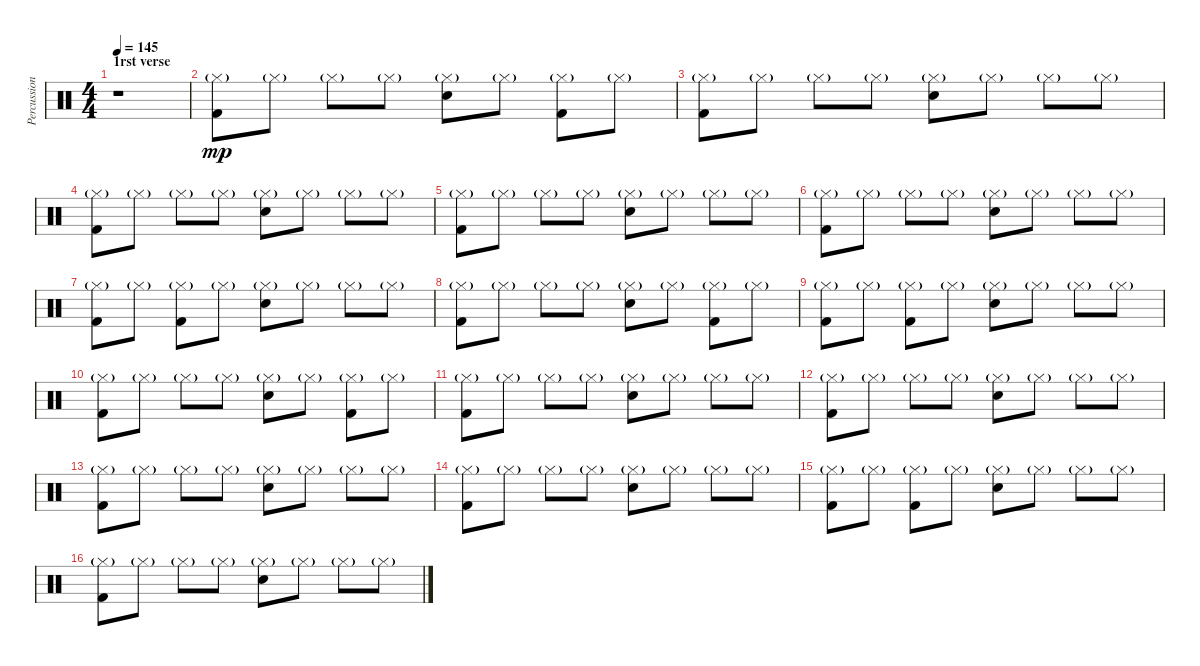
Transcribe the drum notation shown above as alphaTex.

\track ("Percussion (Bengerg)" "Percussion") {instrument percussion}
\staff {score}
\articulation defaults
\ts (4 4)
\section ("" "1rst verse")
\tempo 145
\clef neutral
\ks c
r.1{dy mp} |
("Hi-Hat (closed)"{g} "Kick (hit) 2").8 "Hi-Hat (closed)"{g}.8 "Hi-Hat (closed)"{g}.8 "Hi-Hat (closed)"{g}.8 ("Hi-Hat (closed)"{g} "Hand Clap (hit)").8 "Hi-Hat (closed)"{g}.8 ("Hi-Hat (closed)"{g} "Kick (hit) 2").8 "Hi-Hat (closed)"{g}.8 |
("Hi-Hat (closed)"{g} "Kick (hit) 2").8 "Hi-Hat (closed)"{g}.8 "Hi-Hat (closed)"{g}.8 "Hi-Hat (closed)"{g}.8 ("Hi-Hat (closed)"{g} "Hand Clap (hit)").8 "Hi-Hat (closed)"{g}.8 "Hi-Hat (closed)"{g}.8 "Hi-Hat (closed)"{g}.8 |
("Hi-Hat (closed)"{g} "Kick (hit) 2").8 "Hi-Hat (closed)"{g}.8 "Hi-Hat (closed)"{g}.8 "Hi-Hat (closed)"{g}.8 ("Hi-Hat (closed)"{g} "Hand Clap (hit)").8 "Hi-Hat (closed)"{g}.8 "Hi-Hat (closed)"{g}.8 "Hi-Hat (closed)"{g}.8 |
("Hi-Hat (closed)"{g} "Kick (hit) 2").8 "Hi-Hat (closed)"{g}.8 "Hi-Hat (closed)"{g}.8 "Hi-Hat (closed)"{g}.8 ("Hi-Hat (closed)"{g} "Hand Clap (hit)").8 "Hi-Hat (closed)"{g}.8 "Hi-Hat (closed)"{g}.8 "Hi-Hat (closed)"{g}.8 |
("Hi-Hat (closed)"{g} "Kick (hit) 2").8 "Hi-Hat (closed)"{g}.8 "Hi-Hat (closed)"{g}.8 "Hi-Hat (closed)"{g}.8 ("Hi-Hat (closed)"{g} "Hand Clap (hit)").8 "Hi-Hat (closed)"{g}.8 "Hi-Hat (closed)"{g}.8 "Hi-Hat (closed)"{g}.8 |
("Hi-Hat (closed)"{g} "Kick (hit) 2").8 "Hi-Hat (closed)"{g}.8 ("Hi-Hat (closed)"{g} "Kick (hit) 2").8 "Hi-Hat (closed)"{g}.8 ("Hi-Hat (closed)"{g} "Hand Clap (hit)").8 "Hi-Hat (closed)"{g}.8 "Hi-Hat (closed)"{g}.8 "Hi-Hat (closed)"{g}.8 |
("Hi-Hat (closed)"{g} "Kick (hit) 2").8 "Hi-Hat (closed)"{g}.8 "Hi-Hat (closed)"{g}.8 "Hi-Hat (closed)"{g}.8 ("Hi-Hat (closed)"{g} "Hand Clap (hit)").8 "Hi-Hat (closed)"{g}.8 ("Hi-Hat (closed)"{g} "Kick (hit) 2").8 "Hi-Hat (closed)"{g}.8 |
("Hi-Hat (closed)"{g} "Kick (hit) 2").8 "Hi-Hat (closed)"{g}.8 ("Hi-Hat (closed)"{g} "Kick (hit) 2").8 "Hi-Hat (closed)"{g}.8 ("Hi-Hat (closed)"{g} "Hand Clap (hit)").8 "Hi-Hat (closed)"{g}.8 "Hi-Hat (closed)"{g}.8 "Hi-Hat (closed)"{g}.8 |
("Hi-Hat (closed)"{g} "Kick (hit) 2").8 "Hi-Hat (closed)"{g}.8 "Hi-Hat (closed)"{g}.8 "Hi-Hat (closed)"{g}.8 ("Hi-Hat (closed)"{g} "Hand Clap (hit)").8 "Hi-Hat (closed)"{g}.8 ("Hi-Hat (closed)"{g} "Kick (hit) 2").8 "Hi-Hat (closed)"{g}.8 |
("Hi-Hat (closed)"{g} "Kick (hit) 2").8 "Hi-Hat (closed)"{g}.8 "Hi-Hat (closed)"{g}.8 "Hi-Hat (closed)"{g}.8 ("Hi-Hat (closed)"{g} "Hand Clap (hit)").8 "Hi-Hat (closed)"{g}.8 "Hi-Hat (closed)"{g}.8 "Hi-Hat (closed)"{g}.8 |
("Hi-Hat (closed)"{g} "Kick (hit) 2").8 "Hi-Hat (closed)"{g}.8 "Hi-Hat (closed)"{g}.8 "Hi-Hat (closed)"{g}.8 ("Hi-Hat (closed)"{g} "Hand Clap (hit)").8 "Hi-Hat (closed)"{g}.8 "Hi-Hat (closed)"{g}.8 "Hi-Hat (closed)"{g}.8 |
("Hi-Hat (closed)"{g} "Kick (hit) 2").8 "Hi-Hat (closed)"{g}.8 "Hi-Hat (closed)"{g}.8 "Hi-Hat (closed)"{g}.8 ("Hi-Hat (closed)"{g} "Hand Clap (hit)").8 "Hi-Hat (closed)"{g}.8 "Hi-Hat (closed)"{g}.8 "Hi-Hat (closed)"{g}.8 |
("Hi-Hat (closed)"{g} "Kick (hit) 2").8 "Hi-Hat (closed)"{g}.8 "Hi-Hat (closed)"{g}.8 "Hi-Hat (closed)"{g}.8 ("Hi-Hat (closed)"{g} "Hand Clap (hit)").8 "Hi-Hat (closed)"{g}.8 "Hi-Hat (closed)"{g}.8 "Hi-Hat (closed)"{g}.8 |
("Hi-Hat (closed)"{g} "Kick (hit) 2").8 "Hi-Hat (closed)"{g}.8 ("Hi-Hat (closed)"{g} "Kick (hit) 2").8 "Hi-Hat (closed)"{g}.8 ("Hi-Hat (closed)"{g} "Hand Clap (hit)").8 "Hi-Hat (closed)"{g}.8 "Hi-Hat (closed)"{g}.8 "Hi-Hat (closed)"{g}.8 |
("Hi-Hat (closed)"{g} "Kick (hit) 2").8 "Hi-Hat (closed)"{g}.8 "Hi-Hat (closed)"{g}.8 "Hi-Hat (closed)"{g}.8 ("Hi-Hat (closed)"{g} "Hand Clap (hit)").8 "Hi-Hat (closed)"{g}.8 "Hi-Hat (closed)"{g}.8 "Hi-Hat (closed)"{g}.8
